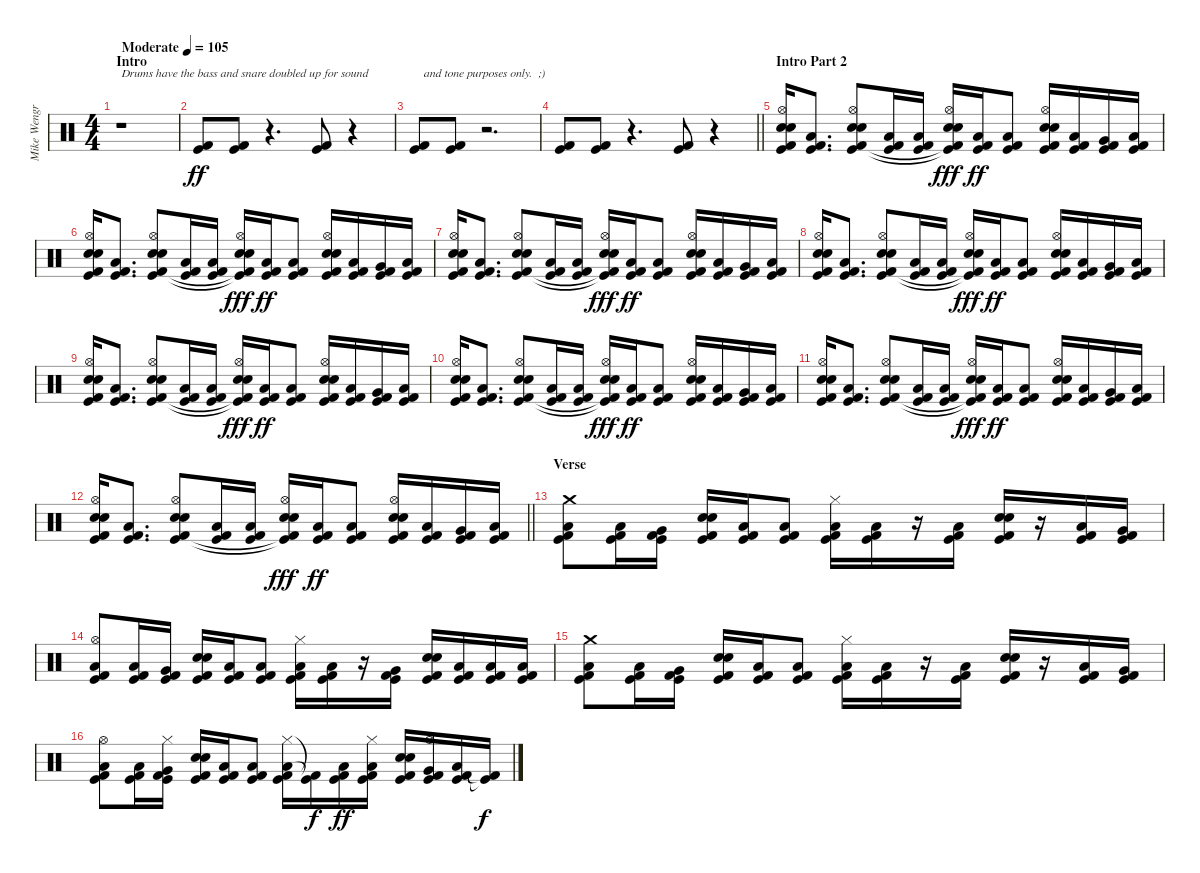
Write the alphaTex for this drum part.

\track ("Mike Wengren (Drums)" "Mike Wengr") {instrument percussion}
\staff {score}
\articulation defaults
\ts (4 4)
\section ("" "Intro")
\tempo (105 "Moderate")
\clef neutral
\ks c
r.1{txt "Drums have the bass and snare doubled up for sound" dy ff} |
("Kick (hit) 2" "Kick (hit)").8 ("Kick (hit) 2" "Kick (hit)").8 r.4{d} ("Kick (hit) 2" "Kick (hit)").8 r.4 |
("Kick (hit) 2" "Kick (hit)").8{txt "   and tone purposes only.  ;)"} ("Kick (hit) 2" "Kick (hit)").8 r.2{d} |
\barLineRight lightlight
("Kick (hit) 2" "Kick (hit)").8 ("Kick (hit) 2" "Kick (hit)").8 r.4{d} ("Kick (hit) 2" "Kick (hit)").8 r.4 |
\section ("" "Intro Part 2")
("Hi-Hat (open)" "Electric Snare (hit)" "Snare (hit) 2" "Kick (hit) 2" "Kick (hit)").16 ("Low Floor Tom (hit)" "Kick (hit) 2" "Kick (hit)").8{d} ("Hi-Hat (open)" "Electric Snare (hit)" "Snare (hit) 2" "Kick (hit) 2" "Kick (hit)").8 ("Low Floor Tom (hit)" "Kick (hit) 2" "Kick (hit)").16 ("Low Floor Tom (hit)" "Kick (hit) 2" "Kick (hit)").16 ("Hi-Hat (open)" "Electric Snare (hit)" "Snare (hit) 2" "Kick (hit) 2"{t} "Kick (hit)"{t}).16{dy fff} ("Low Floor Tom (hit)" "Kick (hit) 2" "Kick (hit)").16{dy ff} ("Low Floor Tom (hit)" "Kick (hit) 2" "Kick (hit)").8 ("Hi-Hat (open)" "Electric Snare (hit)" "Snare (hit) 2" "Kick (hit) 2" "Kick (hit)").16 ("Low Floor Tom (hit)" "Kick (hit) 2" "Kick (hit)").16 ("Very Low Tom (hit)" "Kick (hit) 2" "Kick (hit)").16 ("Low Tom (hit)" "Kick (hit) 2" "Kick (hit)").16 |
("Hi-Hat (open)" "Electric Snare (hit)" "Snare (hit) 2" "Kick (hit) 2" "Kick (hit)").16 ("Low Floor Tom (hit)" "Kick (hit) 2" "Kick (hit)").8{d} ("Hi-Hat (open)" "Electric Snare (hit)" "Snare (hit) 2" "Kick (hit) 2" "Kick (hit)").8 ("Low Floor Tom (hit)" "Kick (hit) 2" "Kick (hit)").16 ("Low Floor Tom (hit)" "Kick (hit) 2" "Kick (hit)").16 ("Hi-Hat (open)" "Electric Snare (hit)" "Snare (hit) 2" "Kick (hit) 2"{t} "Kick (hit)"{t}).16{dy fff} ("Low Floor Tom (hit)" "Kick (hit) 2" "Kick (hit)").16{dy ff} ("Low Floor Tom (hit)" "Kick (hit) 2" "Kick (hit)").8 ("Hi-Hat (open)" "Electric Snare (hit)" "Snare (hit) 2" "Kick (hit) 2" "Kick (hit)").16 ("Low Floor Tom (hit)" "Kick (hit) 2" "Kick (hit)").16 ("Very Low Tom (hit)" "Kick (hit) 2" "Kick (hit)").16 ("Low Tom (hit)" "Kick (hit) 2" "Kick (hit)").16 |
("Hi-Hat (open)" "Electric Snare (hit)" "Snare (hit) 2" "Kick (hit) 2" "Kick (hit)").16 ("Low Floor Tom (hit)" "Kick (hit) 2" "Kick (hit)").8{d} ("Hi-Hat (open)" "Electric Snare (hit)" "Snare (hit) 2" "Kick (hit) 2" "Kick (hit)").8 ("Low Floor Tom (hit)" "Kick (hit) 2" "Kick (hit)").16 ("Low Floor Tom (hit)" "Kick (hit) 2" "Kick (hit)").16 ("Hi-Hat (open)" "Electric Snare (hit)" "Snare (hit) 2" "Kick (hit) 2"{t} "Kick (hit)"{t}).16{dy fff} ("Low Floor Tom (hit)" "Kick (hit) 2" "Kick (hit)").16{dy ff} ("Low Floor Tom (hit)" "Kick (hit) 2" "Kick (hit)").8 ("Hi-Hat (open)" "Electric Snare (hit)" "Snare (hit) 2" "Kick (hit) 2" "Kick (hit)").16 ("Low Floor Tom (hit)" "Kick (hit) 2" "Kick (hit)").16 ("Very Low Tom (hit)" "Kick (hit) 2" "Kick (hit)").16 ("Low Tom (hit)" "Kick (hit) 2" "Kick (hit)").16 |
("Hi-Hat (open)" "Electric Snare (hit)" "Snare (hit) 2" "Kick (hit) 2" "Kick (hit)").16 ("Low Floor Tom (hit)" "Kick (hit) 2" "Kick (hit)").8{d} ("Hi-Hat (open)" "Electric Snare (hit)" "Snare (hit) 2" "Kick (hit) 2" "Kick (hit)").8 ("Low Floor Tom (hit)" "Kick (hit) 2" "Kick (hit)").16 ("Low Floor Tom (hit)" "Kick (hit) 2" "Kick (hit)").16 ("Hi-Hat (open)" "Electric Snare (hit)" "Snare (hit) 2" "Kick (hit) 2"{t} "Kick (hit)"{t}).16{dy fff} ("Low Floor Tom (hit)" "Kick (hit) 2" "Kick (hit)").16{dy ff} ("Low Floor Tom (hit)" "Kick (hit) 2" "Kick (hit)").8 ("Hi-Hat (open)" "Electric Snare (hit)" "Snare (hit) 2" "Kick (hit) 2" "Kick (hit)").16 ("Low Floor Tom (hit)" "Kick (hit) 2" "Kick (hit)").16 ("Very Low Tom (hit)" "Kick (hit) 2" "Kick (hit)").16 ("Low Tom (hit)" "Kick (hit) 2" "Kick (hit)").16 |
("Hi-Hat (open)" "Electric Snare (hit)" "Snare (hit) 2" "Kick (hit) 2" "Kick (hit)").16 ("Low Floor Tom (hit)" "Kick (hit) 2" "Kick (hit)").8{d} ("Hi-Hat (open)" "Electric Snare (hit)" "Snare (hit) 2" "Kick (hit) 2" "Kick (hit)").8 ("Low Floor Tom (hit)" "Kick (hit) 2" "Kick (hit)").16 ("Low Floor Tom (hit)" "Kick (hit) 2" "Kick (hit)").16 ("Hi-Hat (open)" "Electric Snare (hit)" "Snare (hit) 2" "Kick (hit) 2"{t} "Kick (hit)"{t}).16{dy fff} ("Low Floor Tom (hit)" "Kick (hit) 2" "Kick (hit)").16{dy ff} ("Low Floor Tom (hit)" "Kick (hit) 2" "Kick (hit)").8 ("Hi-Hat (open)" "Electric Snare (hit)" "Snare (hit) 2" "Kick (hit) 2" "Kick (hit)").16 ("Low Floor Tom (hit)" "Kick (hit) 2" "Kick (hit)").16 ("Very Low Tom (hit)" "Kick (hit) 2" "Kick (hit)").16 ("Low Tom (hit)" "Kick (hit) 2" "Kick (hit)").16 |
("Hi-Hat (open)" "Electric Snare (hit)" "Snare (hit) 2" "Kick (hit) 2" "Kick (hit)").16 ("Low Floor Tom (hit)" "Kick (hit) 2" "Kick (hit)").8{d} ("Hi-Hat (open)" "Electric Snare (hit)" "Snare (hit) 2" "Kick (hit) 2" "Kick (hit)").8 ("Low Floor Tom (hit)" "Kick (hit) 2" "Kick (hit)").16 ("Low Floor Tom (hit)" "Kick (hit) 2" "Kick (hit)").16 ("Hi-Hat (open)" "Electric Snare (hit)" "Snare (hit) 2" "Kick (hit) 2"{t} "Kick (hit)"{t}).16{dy fff} ("Low Floor Tom (hit)" "Kick (hit) 2" "Kick (hit)").16{dy ff} ("Low Floor Tom (hit)" "Kick (hit) 2" "Kick (hit)").8 ("Hi-Hat (open)" "Electric Snare (hit)" "Snare (hit) 2" "Kick (hit) 2" "Kick (hit)").16 ("Low Floor Tom (hit)" "Kick (hit) 2" "Kick (hit)").16 ("Very Low Tom (hit)" "Kick (hit) 2" "Kick (hit)").16 ("Low Tom (hit)" "Kick (hit) 2" "Kick (hit)").16 |
("Hi-Hat (open)" "Electric Snare (hit)" "Snare (hit) 2" "Kick (hit) 2" "Kick (hit)").16 ("Low Floor Tom (hit)" "Kick (hit) 2" "Kick (hit)").8{d} ("Hi-Hat (open)" "Electric Snare (hit)" "Snare (hit) 2" "Kick (hit) 2" "Kick (hit)").8 ("Low Floor Tom (hit)" "Kick (hit) 2" "Kick (hit)").16 ("Low Floor Tom (hit)" "Kick (hit) 2" "Kick (hit)").16 ("Hi-Hat (open)" "Electric Snare (hit)" "Snare (hit) 2" "Kick (hit) 2"{t} "Kick (hit)"{t}).16{dy fff} ("Low Floor Tom (hit)" "Kick (hit) 2" "Kick (hit)").16{dy ff} ("Low Floor Tom (hit)" "Kick (hit) 2" "Kick (hit)").8 ("Hi-Hat (open)" "Electric Snare (hit)" "Snare (hit) 2" "Kick (hit) 2" "Kick (hit)").16 ("Low Floor Tom (hit)" "Kick (hit) 2" "Kick (hit)").16 ("Very Low Tom (hit)" "Kick (hit) 2" "Kick (hit)").16 ("Low Tom (hit)" "Kick (hit) 2" "Kick (hit)").16 |
\barLineRight lightlight
("Hi-Hat (open)" "Electric Snare (hit)" "Snare (hit) 2" "Kick (hit) 2" "Kick (hit)").16 ("Low Floor Tom (hit)" "Kick (hit) 2" "Kick (hit)").8{d} ("Hi-Hat (open)" "Electric Snare (hit)" "Snare (hit) 2" "Kick (hit) 2" "Kick (hit)").8 ("Low Floor Tom (hit)" "Kick (hit) 2" "Kick (hit)").16 ("Low Floor Tom (hit)" "Kick (hit) 2" "Kick (hit)").16 ("Hi-Hat (open)" "Electric Snare (hit)" "Snare (hit) 2" "Kick (hit) 2"{t} "Kick (hit)"{t}).16{dy fff} ("Low Floor Tom (hit)" "Kick (hit) 2" "Kick (hit)").16{dy ff} ("Low Floor Tom (hit)" "Kick (hit) 2" "Kick (hit)").8 ("Hi-Hat (open)" "Electric Snare (hit)" "Snare (hit) 2" "Kick (hit) 2" "Kick (hit)").16 ("Low Floor Tom (hit)" "Kick (hit) 2" "Kick (hit)").16 ("Very Low Tom (hit)" "Kick (hit) 2" "Kick (hit)").16 ("Low Tom (hit)" "Kick (hit) 2" "Kick (hit)").16 |
\section ("" "Verse")
("Crash medium (hit)" "Low Floor Tom (hit)" "Kick (hit) 2" "Kick (hit)").8 ("Low Floor Tom (hit)" "Kick (hit) 2" "Kick (hit)").16 ("Very Low Tom (hit)" "Kick (hit) 2" "Kick (hit)").16 ("Electric Snare (hit)" "Snare (hit) 2" "Kick (hit) 2" "Kick (hit)").16 ("Low Floor Tom (hit)" "Kick (hit) 2" "Kick (hit)").16 ("Low Floor Tom (hit)" "Kick (hit) 2" "Kick (hit)").8 ("Hi-Hat (closed)" "Low Floor Tom (hit)" "Kick (hit) 2" "Kick (hit)").16 ("Low Floor Tom (hit)" "Kick (hit) 2" "Kick (hit)").16 r.16 ("Low Floor Tom (hit)" "Kick (hit) 2" "Kick (hit)").16 ("Electric Snare (hit)" "Snare (hit) 2" "Kick (hit) 2" "Kick (hit)").16 r.16 ("Low Floor Tom (hit)" "Kick (hit) 2" "Kick (hit)").16 ("Very Low Tom (hit)" "Kick (hit) 2" "Kick (hit)").16 |
("Hi-Hat (open)" "Low Floor Tom (hit)" "Kick (hit) 2" "Kick (hit)").8 ("Low Floor Tom (hit)" "Kick (hit) 2" "Kick (hit)").16 ("Very Low Tom (hit)" "Kick (hit) 2" "Kick (hit)").16 ("Electric Snare (hit)" "Snare (hit) 2" "Kick (hit) 2" "Kick (hit)").16 ("Low Floor Tom (hit)" "Kick (hit) 2" "Kick (hit)").16 ("Low Floor Tom (hit)" "Kick (hit) 2" "Kick (hit)").8 ("Hi-Hat (closed)" "Low Floor Tom (hit)" "Kick (hit) 2" "Kick (hit)").16 ("Low Floor Tom (hit)" "Kick (hit) 2" "Kick (hit)").16 r.16 ("Very Low Tom (hit)" "Kick (hit) 2" "Kick (hit)").16 ("Electric Snare (hit)" "Snare (hit) 2" "Kick (hit) 2" "Kick (hit)").16 ("Low Floor Tom (hit)" "Kick (hit) 2" "Kick (hit)").16 ("Low Floor Tom (hit)" "Kick (hit) 2" "Kick (hit)").16 ("Low Floor Tom (hit)" "Kick (hit) 2" "Kick (hit)").16 |
("Crash medium (hit)" "Low Floor Tom (hit)" "Kick (hit) 2" "Kick (hit)").8 ("Low Floor Tom (hit)" "Kick (hit) 2" "Kick (hit)").16 ("Very Low Tom (hit)" "Kick (hit) 2" "Kick (hit)").16 ("Electric Snare (hit)" "Snare (hit) 2" "Kick (hit) 2" "Kick (hit)").16 ("Low Floor Tom (hit)" "Kick (hit) 2" "Kick (hit)").16 ("Low Floor Tom (hit)" "Kick (hit) 2" "Kick (hit)").8 ("Hi-Hat (closed)" "Low Floor Tom (hit)" "Kick (hit) 2" "Kick (hit)").16 ("Low Floor Tom (hit)" "Kick (hit) 2" "Kick (hit)").16 r.16 ("Low Floor Tom (hit)" "Kick (hit) 2" "Kick (hit)").16 ("Electric Snare (hit)" "Snare (hit) 2" "Kick (hit) 2" "Kick (hit)").16 r.16 ("Low Floor Tom (hit)" "Kick (hit) 2" "Kick (hit)").16 ("Very Low Tom (hit)" "Kick (hit) 2" "Kick (hit)").16 |
("Hi-Hat (open)" "Low Floor Tom (hit)" "Kick (hit) 2" "Kick (hit)").8 ("Low Floor Tom (hit)" "Kick (hit) 2" "Kick (hit)").16 ("Hi-Hat (closed)" "Very Low Tom (hit)" "Kick (hit) 2" "Kick (hit)").16 ("Electric Snare (hit)" "Snare (hit) 2" "Kick (hit) 2" "Kick (hit)").16 ("Low Floor Tom (hit)" "Kick (hit) 2" "Kick (hit)").16 ("Low Floor Tom (hit)" "Kick (hit) 2" "Kick (hit)").8 ("Hi-Hat (closed)" "Low Floor Tom (hit)" "Kick (hit) 2" "Kick (hit)").16 ("Kick (hit) 2"{t} "Kick (hit)"{t}).16{dy f} ("Low Floor Tom (hit)" "Kick (hit) 2" "Kick (hit)").16{dy ff} ("Hi-Hat (closed)" "Low Floor Tom (hit)" "Kick (hit) 2" "Kick (hit)").16 ("Electric Snare (hit)" "Snare (hit) 2" "Kick (hit) 2" "Kick (hit)").16 ("Hi-Hat (open)" "Very Low Tom (hit)" "Kick (hit) 2" "Kick (hit)").16 ("Low Floor Tom (hit)" "Kick (hit) 2" "Kick (hit)").16 ("Kick (hit) 2"{t} "Kick (hit)"{t}).16{dy f}
